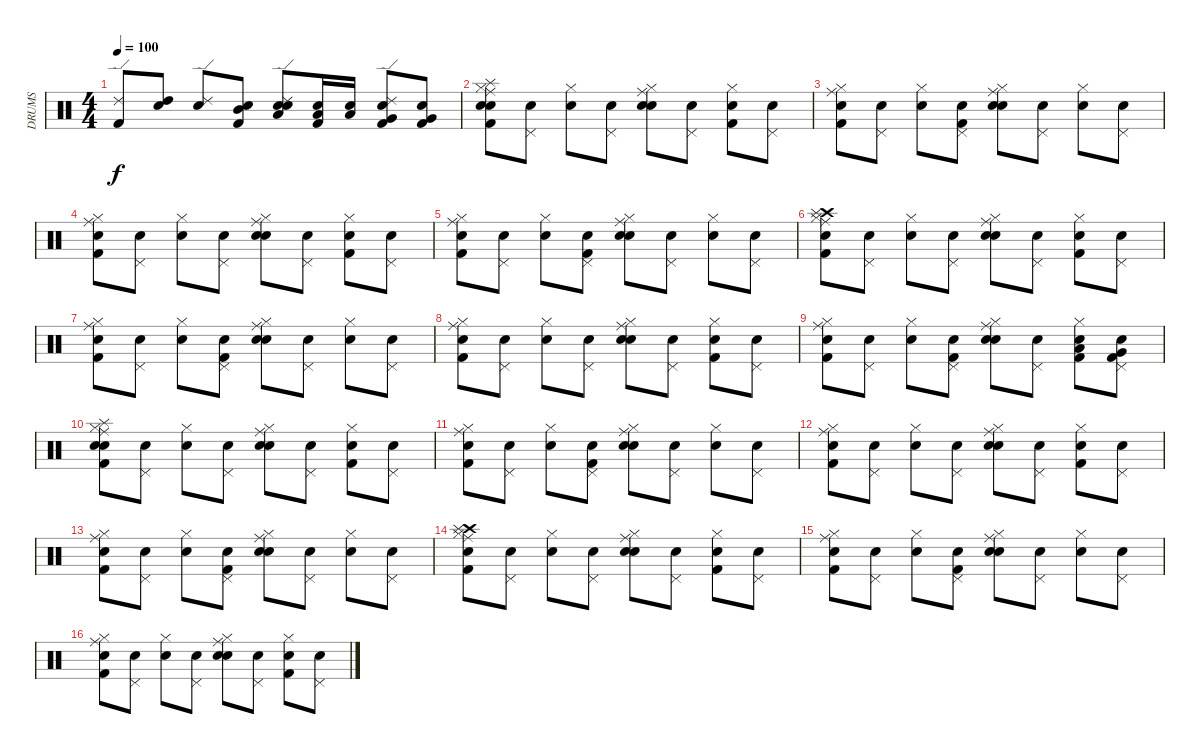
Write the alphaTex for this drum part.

\track ("DRUMS" "DRUMS") {instrument percussion}
\staff {score}
\articulation defaults
\ts (4 4)
\tempo 100
\clef neutral
\ks c
("Kick (hit) 2" "Ride (edge) 2").8{dy f} ("Snare (hit)" "High Tom (hit)").8 ("Snare (hit)" "Ride (edge) 2").8 ("Snare (hit)" "Mid Tom (hit)" "Kick (hit) 2").8 ("Snare (hit)" "Low Tom (hit)" "Snare (hit) 2" "Ride (edge) 2").8 ("Snare (hit)" "Low Tom (hit)" "Kick (hit) 2").16 ("Snare (hit)" "Low Tom (hit)").16 ("Snare (hit)" "Very Low Tom (hit)" "Kick (hit) 2" "Ride (edge) 2").8 ("Snare (hit)" "Very Low Tom (hit)" "Kick (hit) 2").8 |
("Snare (hit)" "Ride (middle)" "Hi-Hat (closed)" "Kick (hit) 2" "Snare (hit) 2" "Splash (hit)").8 ("Snare (hit)" "Pedal Hi-Hat (hit)").8 ("Snare (hit)" "Hi-Hat (closed)").8 ("Snare (hit)" "Pedal Hi-Hat (hit)").8 ("Snare (hit)" "Ride (middle)" "Hi-Hat (closed)" "Snare (hit) 2").8 ("Snare (hit)" "Pedal Hi-Hat (hit)").8 ("Snare (hit)" "Hi-Hat (closed)" "Kick (hit) 2").8 ("Snare (hit)" "Pedal Hi-Hat (hit)").8 |
("Snare (hit)" "Ride (middle)" "Hi-Hat (closed)" "Kick (hit) 2").8 ("Snare (hit)" "Pedal Hi-Hat (hit)").8 ("Snare (hit)" "Hi-Hat (closed)").8 ("Snare (hit)" "Pedal Hi-Hat (hit)" "Kick (hit) 2").8 ("Snare (hit)" "Ride (middle)" "Hi-Hat (closed)" "Snare (hit) 2").8 ("Snare (hit)" "Pedal Hi-Hat (hit)").8 ("Snare (hit)" "Hi-Hat (closed)").8 ("Snare (hit)" "Pedal Hi-Hat (hit)").8 |
("Snare (hit)" "Kick (hit) 2" "Ride (middle)" "Hi-Hat (closed)").8 ("Snare (hit)" "Pedal Hi-Hat (hit)").8 ("Snare (hit)" "Hi-Hat (closed)").8 ("Snare (hit)" "Pedal Hi-Hat (hit)").8 ("Snare (hit)" "Ride (middle)" "Hi-Hat (closed)" "Snare (hit) 2").8 ("Snare (hit)" "Pedal Hi-Hat (hit)").8 ("Snare (hit)" "Hi-Hat (closed)" "Kick (hit) 2").8 ("Snare (hit)" "Pedal Hi-Hat (hit)").8 |
("Snare (hit)" "Ride (middle)" "Hi-Hat (closed)" "Kick (hit) 2").8 ("Snare (hit)" "Pedal Hi-Hat (hit)").8 ("Snare (hit)" "Hi-Hat (closed)").8 ("Snare (hit)" "Pedal Hi-Hat (hit)" "Kick (hit) 2").8 ("Snare (hit)" "Ride (middle)" "Hi-Hat (closed)" "Snare (hit) 2").8 ("Snare (hit)" "Pedal Hi-Hat (hit)").8 ("Snare (hit)" "Hi-Hat (closed)").8 ("Snare (hit)" "Pedal Hi-Hat (hit)").8 |
("Snare (hit)" "Hi-Hat (closed)" "Ride (middle)" "Kick (hit) 2" "Crash high (hit)" "Splash (hit)").8 ("Snare (hit)" "Pedal Hi-Hat (hit)").8 ("Snare (hit)" "Hi-Hat (closed)").8 ("Snare (hit)" "Pedal Hi-Hat (hit)").8 ("Snare (hit)" "Ride (middle)" "Hi-Hat (closed)" "Snare (hit) 2").8 ("Snare (hit)" "Pedal Hi-Hat (hit)").8 ("Snare (hit)" "Hi-Hat (closed)" "Kick (hit) 2").8 ("Snare (hit)" "Pedal Hi-Hat (hit)").8 |
("Snare (hit)" "Ride (middle)" "Hi-Hat (closed)" "Kick (hit) 2").8 ("Snare (hit)" "Pedal Hi-Hat (hit)").8 ("Snare (hit)" "Hi-Hat (closed)").8 ("Snare (hit)" "Pedal Hi-Hat (hit)" "Kick (hit) 2").8 ("Snare (hit)" "Ride (middle)" "Hi-Hat (closed)" "Snare (hit) 2").8 ("Snare (hit)" "Pedal Hi-Hat (hit)").8 ("Snare (hit)" "Hi-Hat (closed)").8 ("Snare (hit)" "Pedal Hi-Hat (hit)").8 |
("Snare (hit)" "Kick (hit) 2" "Ride (middle)" "Hi-Hat (closed)").8 ("Snare (hit)" "Pedal Hi-Hat (hit)").8 ("Snare (hit)" "Hi-Hat (closed)").8 ("Snare (hit)" "Pedal Hi-Hat (hit)").8 ("Snare (hit)" "Ride (middle)" "Hi-Hat (closed)" "Snare (hit) 2").8 ("Snare (hit)" "Pedal Hi-Hat (hit)").8 ("Snare (hit)" "Hi-Hat (closed)" "Kick (hit) 2").8 ("Snare (hit)" "Pedal Hi-Hat (hit)").8 |
("Snare (hit)" "Ride (middle)" "Hi-Hat (closed)" "Kick (hit) 2").8 ("Snare (hit)" "Pedal Hi-Hat (hit)").8 ("Snare (hit)" "Hi-Hat (closed)").8 ("Snare (hit)" "Pedal Hi-Hat (hit)" "Kick (hit) 2").8 ("Snare (hit)" "Ride (middle)" "Hi-Hat (closed)" "Snare (hit) 2").8 ("Snare (hit)" "Pedal Hi-Hat (hit)").8 ("Snare (hit)" "Kick (hit) 2" "Low Tom (hit)" "Hi-Hat (closed)").8 ("Snare (hit)" "Very Low Tom (hit)" "Kick (hit) 2" "Pedal Hi-Hat (hit)").8 |
("Snare (hit)" "Ride (middle)" "Hi-Hat (closed)" "Kick (hit) 2" "Snare (hit) 2" "Splash (hit)").8 ("Snare (hit)" "Pedal Hi-Hat (hit)").8 ("Snare (hit)" "Hi-Hat (closed)").8 ("Snare (hit)" "Pedal Hi-Hat (hit)").8 ("Snare (hit)" "Ride (middle)" "Hi-Hat (closed)" "Snare (hit) 2").8 ("Snare (hit)" "Pedal Hi-Hat (hit)").8 ("Snare (hit)" "Hi-Hat (closed)" "Kick (hit) 2").8 ("Snare (hit)" "Pedal Hi-Hat (hit)").8 |
("Snare (hit)" "Ride (middle)" "Hi-Hat (closed)" "Kick (hit) 2").8 ("Snare (hit)" "Pedal Hi-Hat (hit)").8 ("Snare (hit)" "Hi-Hat (closed)").8 ("Snare (hit)" "Pedal Hi-Hat (hit)" "Kick (hit) 2").8 ("Snare (hit)" "Ride (middle)" "Hi-Hat (closed)" "Snare (hit) 2").8 ("Snare (hit)" "Pedal Hi-Hat (hit)").8 ("Snare (hit)" "Hi-Hat (closed)").8 ("Snare (hit)" "Pedal Hi-Hat (hit)").8 |
("Snare (hit)" "Kick (hit) 2" "Ride (middle)" "Hi-Hat (closed)").8 ("Snare (hit)" "Pedal Hi-Hat (hit)").8 ("Snare (hit)" "Hi-Hat (closed)").8 ("Snare (hit)" "Pedal Hi-Hat (hit)").8 ("Snare (hit)" "Ride (middle)" "Hi-Hat (closed)" "Snare (hit) 2").8 ("Snare (hit)" "Pedal Hi-Hat (hit)").8 ("Snare (hit)" "Hi-Hat (closed)" "Kick (hit) 2").8 ("Snare (hit)" "Pedal Hi-Hat (hit)").8 |
("Snare (hit)" "Ride (middle)" "Hi-Hat (closed)" "Kick (hit) 2").8 ("Snare (hit)" "Pedal Hi-Hat (hit)").8 ("Snare (hit)" "Hi-Hat (closed)").8 ("Snare (hit)" "Pedal Hi-Hat (hit)" "Kick (hit) 2").8{txt ""} ("Snare (hit)" "Ride (middle)" "Hi-Hat (closed)" "Snare (hit) 2").8 ("Snare (hit)" "Pedal Hi-Hat (hit)").8 ("Snare (hit)" "Hi-Hat (closed)").8 ("Snare (hit)" "Pedal Hi-Hat (hit)").8 |
("Snare (hit)" "Hi-Hat (closed)" "Ride (middle)" "Kick (hit) 2" "Crash high (hit)" "Splash (hit)").8 ("Snare (hit)" "Pedal Hi-Hat (hit)").8 ("Snare (hit)" "Hi-Hat (closed)").8 ("Snare (hit)" "Pedal Hi-Hat (hit)").8 ("Snare (hit)" "Ride (middle)" "Hi-Hat (closed)" "Snare (hit) 2").8 ("Snare (hit)" "Pedal Hi-Hat (hit)").8 ("Snare (hit)" "Hi-Hat (closed)" "Kick (hit) 2").8 ("Snare (hit)" "Pedal Hi-Hat (hit)").8 |
("Snare (hit)" "Ride (middle)" "Hi-Hat (closed)" "Kick (hit) 2").8 ("Snare (hit)" "Pedal Hi-Hat (hit)").8 ("Snare (hit)" "Hi-Hat (closed)").8 ("Snare (hit)" "Pedal Hi-Hat (hit)" "Kick (hit) 2").8 ("Snare (hit)" "Ride (middle)" "Hi-Hat (closed)" "Snare (hit) 2").8 ("Snare (hit)" "Pedal Hi-Hat (hit)").8 ("Snare (hit)" "Hi-Hat (closed)").8 ("Snare (hit)" "Pedal Hi-Hat (hit)").8 |
("Snare (hit)" "Kick (hit) 2" "Ride (middle)" "Hi-Hat (closed)").8 ("Snare (hit)" "Pedal Hi-Hat (hit)").8 ("Snare (hit)" "Hi-Hat (closed)").8 ("Snare (hit)" "Pedal Hi-Hat (hit)").8 ("Snare (hit)" "Ride (middle)" "Hi-Hat (closed)" "Snare (hit) 2").8 ("Snare (hit)" "Pedal Hi-Hat (hit)").8 ("Snare (hit)" "Hi-Hat (closed)" "Kick (hit) 2").8 ("Snare (hit)" "Pedal Hi-Hat (hit)").8
